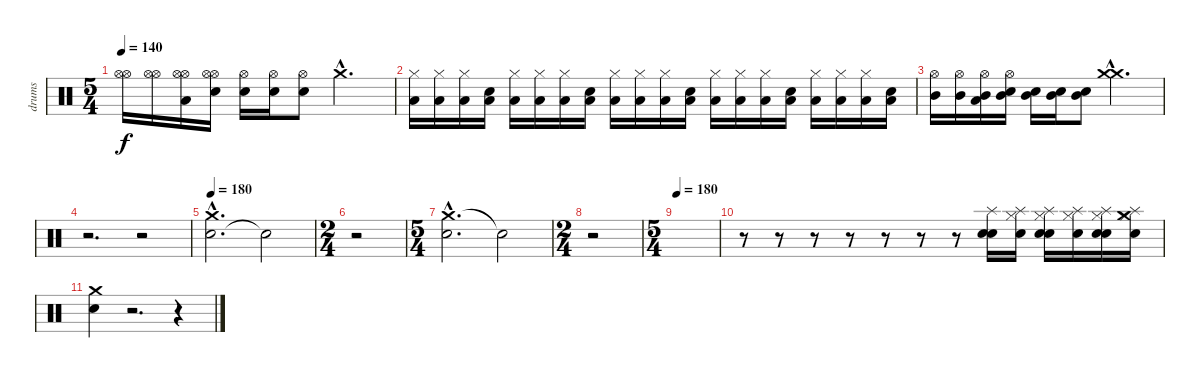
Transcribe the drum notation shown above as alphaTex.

\track ("drums" "drums") {instrument percussion}
\staff {score}
\articulation defaults
\ts (5 4)
\tempo 140
\clef neutral
\ks c
("Hi-Hat (open)" "Hi-Hat (open)").16{dy f} ("Hi-Hat (open)" "Hi-Hat (open)").16 ("Hi-Hat (open)" "Low Tom (hit)" "Hi-Hat (open)").16 ("Hi-Hat (open)" "Electric Snare (hit)" "Hi-Hat (open)").16 ("Hi-Hat (open)" "Snare (hit) 2").16 ("Hi-Hat (open)" "Electric Snare (hit)").16 ("Hi-Hat (open)" "Snare (hit) 2").8 "Crash medium (hit)"{hac}.2{d} |
("Low Tom (hit)" "Hi-Hat (closed)").16 ("Low Tom (hit)" "Hi-Hat (closed)").16 ("Low Tom (hit)" "Hi-Hat (closed)").16 ("Low Tom (hit)" "Snare (hit) 2").16 ("Low Tom (hit)" "Hi-Hat (closed)").16 ("Low Tom (hit)" "Hi-Hat (closed)").16 ("Low Tom (hit)" "Hi-Hat (closed)").16 ("Low Tom (hit)" "Electric Snare (hit)").16 ("Low Tom (hit)" "Hi-Hat (closed)").16 ("Low Tom (hit)" "Hi-Hat (closed)").16 ("Low Tom (hit)" "Hi-Hat (closed)").16 ("Low Tom (hit)" "Snare (hit) 2").16 ("Low Tom (hit)" "Hi-Hat (closed)").16 ("Low Tom (hit)" "Hi-Hat (closed)").16 ("Low Tom (hit)" "Hi-Hat (closed)").16 ("Low Tom (hit)" "Snare (hit) 2").16 ("Low Tom (hit)" "Hi-Hat (closed)").16 ("Low Tom (hit)" "Hi-Hat (closed)").16 ("Low Tom (hit)" "Hi-Hat (closed)").16 ("Low Tom (hit)" "Electric Snare (hit)").16 |
("Mid Tom (hit)" "Hi-Hat (open)").16 ("Mid Tom (hit)" "Hi-Hat (open)").16 ("Mid Tom (hit)" "Low Tom (hit)" "Hi-Hat (open)").16 ("Mid Tom (hit)" "Electric Snare (hit)" "Hi-Hat (open)").16 ("Mid Tom (hit)" "Snare (hit) 2").16 ("Mid Tom (hit)" "Electric Snare (hit)").16 ("Mid Tom (hit)" "Snare (hit) 2").8 ("Crash medium (hit)"{hac} "Crash medium (hit)"{hac}).2{d} |
r.2{d} r.2 |
\tempo 180
("Snare (hit) 2"{hac} "Crash medium (hit)"{hac}).2{d} "Snare (hit)"{t}.2 |
\ts (2 4)
r.2 |
\ts (5 4)
("Crash medium (hit)"{hac} "Snare (hit) 2"{hac}).2{d} "Snare (hit)"{t}.2 |
\ts (2 4)
r.2 |
\ts (5 4)
\tempo 180
|
r.8 r.8 r.8 r.8 r.8 r.8 r.8 ("Splash (hit)" "Electric Snare (hit)" "Snare (hit) 2").16 ("Splash (hit)" "Hi-Hat (closed)" "Snare (hit) 2").16 ("Splash (hit)" "Hi-Hat (closed)" "Electric Snare (hit)" "Snare (hit) 2").16 ("Splash (hit)" "Hi-Hat (closed)" "Snare (hit) 2").16 ("Splash (hit)" "Hi-Hat (closed)" "Electric Snare (hit)" "Snare (hit) 2").16 ("Splash (hit)" "Hi-Hat (closed)" "Crash medium (hit)" "Snare (hit) 2").16 |
("Snare (hit) 2" "Crash medium (hit)").4 r.2{d} r.4
